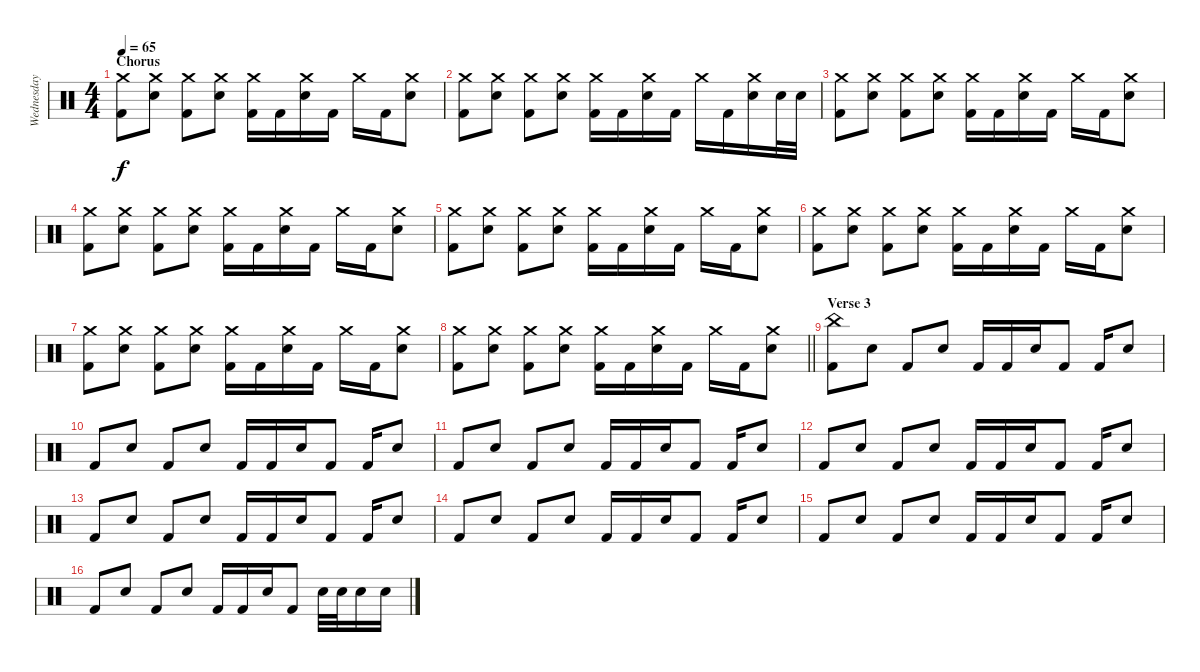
\track ("Wednesday 13 - Drums" "Wednesday ") {instrument percussion}
\staff {score}
\articulation defaults
\ts (4 4)
\section ("" "Chorus")
\tempo 65
\clef neutral
\ks c
("Crash medium (hit)" "Kick (hit) 2").8{dy f} ("Crash medium (hit)" "Electric Snare (hit)").8 ("Crash medium (hit)" "Kick (hit) 2").8 ("Crash medium (hit)" "Electric Snare (hit)").8 ("Crash medium (hit)" "Kick (hit) 2").16 "Kick (hit) 2".16 ("Crash medium (hit)" "Electric Snare (hit)").16 "Kick (hit) 2".16 "Crash medium (hit)".16 "Kick (hit) 2".16 ("Crash medium (hit)" "Electric Snare (hit)").8 |
("Crash medium (hit)" "Kick (hit) 2").8 ("Crash medium (hit)" "Electric Snare (hit)").8 ("Crash medium (hit)" "Kick (hit) 2").8 ("Crash medium (hit)" "Electric Snare (hit)").8 ("Crash medium (hit)" "Kick (hit) 2").16 "Kick (hit) 2".16 ("Crash medium (hit)" "Electric Snare (hit)").16 "Kick (hit) 2".16 "Crash medium (hit)".16 "Kick (hit) 2".16 ("Crash medium (hit)" "Electric Snare (hit)").16 "Electric Snare (hit)".32 "Electric Snare (hit)".32 |
("Crash medium (hit)" "Kick (hit) 2").8 ("Crash medium (hit)" "Electric Snare (hit)").8 ("Crash medium (hit)" "Kick (hit) 2").8 ("Crash medium (hit)" "Electric Snare (hit)").8 ("Crash medium (hit)" "Kick (hit) 2").16 "Kick (hit) 2".16 ("Crash medium (hit)" "Electric Snare (hit)").16 "Kick (hit) 2".16 "Crash medium (hit)".16 "Kick (hit) 2".16 ("Crash medium (hit)" "Electric Snare (hit)").8 |
("Crash medium (hit)" "Kick (hit) 2").8 ("Crash medium (hit)" "Electric Snare (hit)").8 ("Crash medium (hit)" "Kick (hit) 2").8 ("Crash medium (hit)" "Electric Snare (hit)").8 ("Crash medium (hit)" "Kick (hit) 2").16 "Kick (hit) 2".16 ("Crash medium (hit)" "Electric Snare (hit)").16 "Kick (hit) 2".16 "Crash medium (hit)".16 "Kick (hit) 2".16 ("Crash medium (hit)" "Electric Snare (hit)").8 |
("Crash medium (hit)" "Kick (hit) 2").8 ("Crash medium (hit)" "Electric Snare (hit)").8 ("Crash medium (hit)" "Kick (hit) 2").8 ("Crash medium (hit)" "Electric Snare (hit)").8 ("Crash medium (hit)" "Kick (hit) 2").16 "Kick (hit) 2".16 ("Crash medium (hit)" "Electric Snare (hit)").16 "Kick (hit) 2".16 "Crash medium (hit)".16 "Kick (hit) 2".16 ("Crash medium (hit)" "Electric Snare (hit)").8 |
("Crash medium (hit)" "Kick (hit) 2").8 ("Crash medium (hit)" "Electric Snare (hit)").8 ("Crash medium (hit)" "Kick (hit) 2").8 ("Crash medium (hit)" "Electric Snare (hit)").8 ("Crash medium (hit)" "Kick (hit) 2").16 "Kick (hit) 2".16 ("Crash medium (hit)" "Electric Snare (hit)").16 "Kick (hit) 2".16 "Crash medium (hit)".16 "Kick (hit) 2".16 ("Crash medium (hit)" "Electric Snare (hit)").8 |
("Crash medium (hit)" "Kick (hit) 2").8 ("Crash medium (hit)" "Electric Snare (hit)").8 ("Crash medium (hit)" "Kick (hit) 2").8 ("Crash medium (hit)" "Electric Snare (hit)").8 ("Crash medium (hit)" "Kick (hit) 2").16 "Kick (hit) 2".16 ("Crash medium (hit)" "Electric Snare (hit)").16 "Kick (hit) 2".16 "Crash medium (hit)".16 "Kick (hit) 2".16 ("Crash medium (hit)" "Electric Snare (hit)").8 |
\barLineRight lightlight
("Crash medium (hit)" "Kick (hit) 2").8 ("Crash medium (hit)" "Electric Snare (hit)").8 ("Crash medium (hit)" "Kick (hit) 2").8 ("Crash medium (hit)" "Electric Snare (hit)").8 ("Crash medium (hit)" "Kick (hit) 2").16 "Kick (hit) 2".16 ("Crash medium (hit)" "Electric Snare (hit)").16 "Kick (hit) 2".16 "Crash medium (hit)".16 "Kick (hit) 2".16 ("Crash medium (hit)" "Electric Snare (hit)").8 |
\section ("" "Verse 3")
("China (hit)" "Kick (hit) 2").8 "Electric Snare (hit)".8 "Kick (hit) 2".8 "Electric Snare (hit)".8 "Kick (hit) 2".16 "Kick (hit) 2".16 "Electric Snare (hit)".16 "Kick (hit) 2".8 "Kick (hit) 2".16 "Electric Snare (hit)".8 |
"Kick (hit) 2".8 "Electric Snare (hit)".8 "Kick (hit) 2".8 "Electric Snare (hit)".8 "Kick (hit) 2".16 "Kick (hit) 2".16 "Electric Snare (hit)".16 "Kick (hit) 2".8 "Kick (hit) 2".16 "Electric Snare (hit)".8 |
"Kick (hit) 2".8 "Electric Snare (hit)".8 "Kick (hit) 2".8 "Electric Snare (hit)".8 "Kick (hit) 2".16 "Kick (hit) 2".16 "Electric Snare (hit)".16 "Kick (hit) 2".8 "Kick (hit) 2".16 "Electric Snare (hit)".8 |
"Kick (hit) 2".8 "Electric Snare (hit)".8 "Kick (hit) 2".8 "Electric Snare (hit)".8 "Kick (hit) 2".16 "Kick (hit) 2".16 "Electric Snare (hit)".16 "Kick (hit) 2".8 "Kick (hit) 2".16 "Electric Snare (hit)".8 |
"Kick (hit) 2".8 "Electric Snare (hit)".8 "Kick (hit) 2".8 "Electric Snare (hit)".8 "Kick (hit) 2".16 "Kick (hit) 2".16 "Electric Snare (hit)".16 "Kick (hit) 2".8 "Kick (hit) 2".16 "Electric Snare (hit)".8 |
"Kick (hit) 2".8 "Electric Snare (hit)".8 "Kick (hit) 2".8 "Electric Snare (hit)".8 "Kick (hit) 2".16 "Kick (hit) 2".16 "Electric Snare (hit)".16 "Kick (hit) 2".8 "Kick (hit) 2".16 "Electric Snare (hit)".8 |
"Kick (hit) 2".8 "Electric Snare (hit)".8 "Kick (hit) 2".8 "Electric Snare (hit)".8 "Kick (hit) 2".16 "Kick (hit) 2".16 "Electric Snare (hit)".16 "Kick (hit) 2".8 "Kick (hit) 2".16 "Electric Snare (hit)".8 |
"Kick (hit) 2".8 "Electric Snare (hit)".8 "Kick (hit) 2".8 "Electric Snare (hit)".8 "Kick (hit) 2".16 "Kick (hit) 2".16 "Electric Snare (hit)".16 "Kick (hit) 2".8 "Electric Snare (hit)".32 "Electric Snare (hit)".32 "Electric Snare (hit)".16 "Electric Snare (hit)".16
